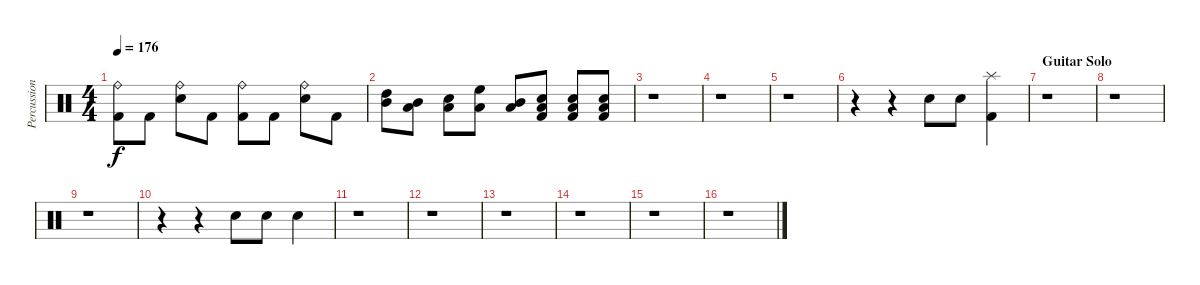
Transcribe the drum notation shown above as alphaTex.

\track ("Percussion" "Percussion") {instrument percussion}
\staff {score}
\articulation defaults
\ts (4 4)
\tempo 176
\clef neutral
\ks c
("Ride (bell)" "Kick (hit) 2").8{dy f} "Kick (hit) 2".8 ("Ride (bell)" "Snare (hit) 2").8 "Kick (hit) 2".8 ("Ride (bell)" "Kick (hit) 2").8 "Kick (hit) 2".8 ("Ride (bell)" "Snare (hit) 2").8 "Kick (hit) 2".8 |
("High Tom (hit)" "Mid Tom (hit)").8 ("Mid Tom (hit)" "Low Tom (hit)").8 ("Low Tom (hit)" "Snare (hit) 2").8 ("High Floor Tom (hit)" "Low Tom (hit)").8 ("Mid Tom (hit)" "Low Tom (hit)").8 ("Low Tom (hit)" "Snare (hit) 2" "Kick (hit) 2").8 ("Low Tom (hit)" "Snare (hit) 2" "Kick (hit) 2").8 ("Low Tom (hit)" "Snare (hit) 2" "Kick (hit) 2").8 |
r.1 |
r.1 |
r.1 |
r.4 r.4 "Snare (hit) 2".8 "Snare (hit) 2".8 ("Splash (hit)" "Kick (hit) 2").4 |
\section ("" "Guitar Solo")
r.1 |
r.1 |
r.1 |
r.4 r.4 "Snare (hit) 2".8 "Snare (hit) 2".8 "Snare (hit) 2".4 |
r.1 |
r.1 |
r.1 |
r.1 |
r.1 |
r.1
